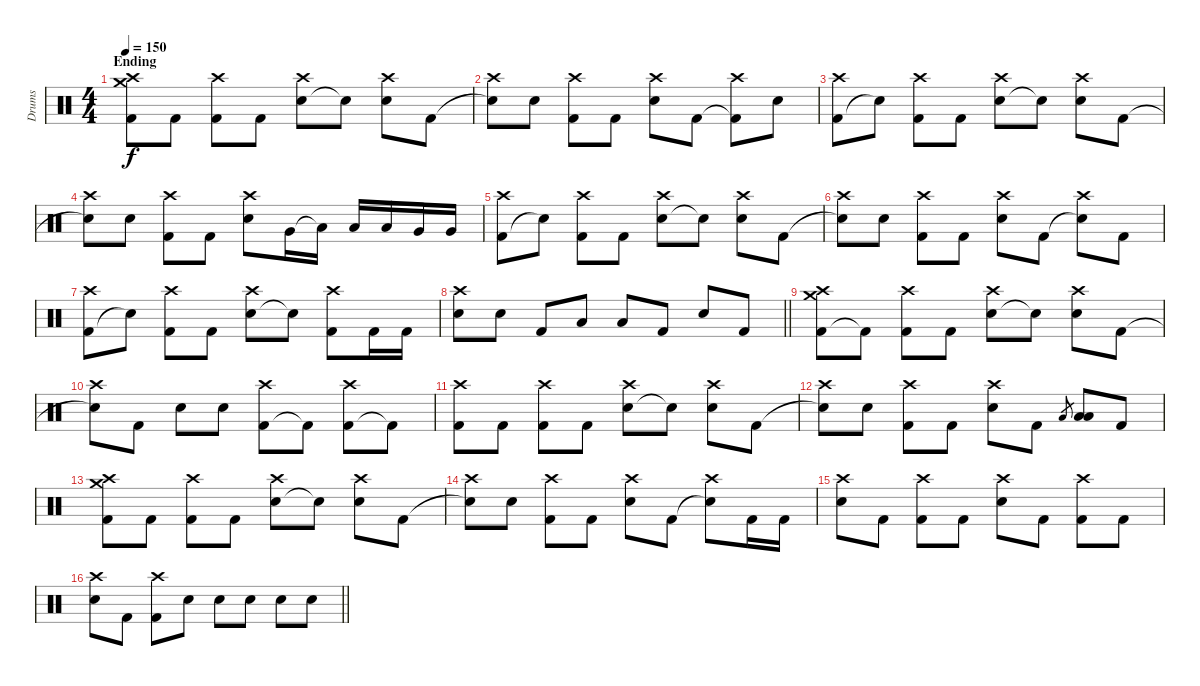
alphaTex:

\track ("Drums" "Drums") {instrument percussion}
\staff {score}
\articulation defaults
\ts (4 4)
\section ("" "Ending")
\tempo 150
\clef neutral
\ks c
("Kick (hit) 2" "Crash medium (hit)" "Crash high (hit)").8{dy f} "Kick (hit) 2".8 ("Kick (hit) 2" "Crash high (hit)").8 "Kick (hit) 2".8 ("Electric Snare (hit)" "Crash high (hit)").8 "Snare (hit)"{t}.8 ("Electric Snare (hit)" "Crash high (hit)").8 "Kick (hit) 2".8 |
("Snare (hit)"{t} "Crash high (hit)").8 "Electric Snare (hit)".8 ("Kick (hit) 2" "Crash high (hit)").8 "Kick (hit) 2".8 ("Electric Snare (hit)" "Crash high (hit)").8 "Kick (hit) 2".8 ("Kick (hit) 2"{t} "Crash high (hit)").8 "Electric Snare (hit)".8 |
("Kick (hit) 2" "Crash high (hit)").8 "Snare (hit)"{t}.8 ("Kick (hit) 2" "Crash high (hit)").8 "Kick (hit) 2".8 ("Electric Snare (hit)" "Crash high (hit)").8 "Snare (hit)"{t}.8 ("Electric Snare (hit)" "Crash high (hit)").8 "Kick (hit) 2".8 |
("Snare (hit)"{t} "Crash high (hit)").8 "Electric Snare (hit)".8 ("Kick (hit) 2" "Crash high (hit)").8 "Kick (hit) 2".8 ("Electric Snare (hit)" "Crash high (hit)").8 "Very Low Tom (hit)".16 "Low Tom (hit)"{t}.16 "Low Tom (hit)".16 "Low Tom (hit)".16 "Very Low Tom (hit)".16 "Very Low Tom (hit)".16 |
("Kick (hit) 2" "Crash high (hit)").8 "Snare (hit)"{t}.8 ("Kick (hit) 2" "Crash high (hit)").8 "Kick (hit) 2".8 ("Electric Snare (hit)" "Crash high (hit)").8 "Snare (hit)"{t}.8 ("Electric Snare (hit)" "Crash high (hit)").8 "Kick (hit) 2".8 |
("Snare (hit)"{t} "Crash high (hit)").8 "Electric Snare (hit)".8 ("Kick (hit) 2" "Crash high (hit)").8 "Kick (hit) 2".8 ("Electric Snare (hit)" "Crash high (hit)").8 "Kick (hit) 2".8 ("Snare (hit)"{t} "Crash high (hit)").8 "Kick (hit) 2".8 |
("Kick (hit) 2" "Crash high (hit)").8 "Snare (hit)"{t}.8 ("Kick (hit) 2" "Crash high (hit)").8 "Kick (hit) 2".8 ("Electric Snare (hit)" "Crash high (hit)").8 "Snare (hit)"{t}.8 ("Kick (hit) 2" "Crash high (hit)").8 "Kick (hit) 2".16 "Kick (hit) 2".16 |
\barLineRight lightlight
("Electric Snare (hit)" "Crash high (hit)").8 "Electric Snare (hit)".8 "Kick (hit) 2".8 "Low Tom (hit)".8 "Low Tom (hit)".8 "Kick (hit) 2".8 "Electric Snare (hit)".8 "Kick (hit) 2".8 |
("Kick (hit) 2" "Crash medium (hit)" "Crash high (hit)").8 "Kick (hit) 2"{t}.8 ("Kick (hit) 2" "Crash high (hit)").8 "Kick (hit) 2".8 ("Electric Snare (hit)" "Crash high (hit)").8 "Snare (hit)"{t}.8 ("Electric Snare (hit)" "Crash high (hit)").8 "Kick (hit) 2".8 |
("Snare (hit)"{t} "Crash high (hit)").8 "Kick (hit) 2".8 "Electric Snare (hit)".8 "Electric Snare (hit)".8 ("Kick (hit) 2" "Crash high (hit)").8 "Kick (hit) 2"{t}.8 ("Kick (hit) 2" "Crash high (hit)").8 "Kick (hit) 2"{t}.8 |
("Kick (hit) 2" "Crash high (hit)").8 "Kick (hit) 2".8 ("Kick (hit) 2" "Crash high (hit)").8 "Kick (hit) 2".8 ("Electric Snare (hit)" "Crash high (hit)").8 "Snare (hit)"{t}.8 ("Electric Snare (hit)" "Crash high (hit)").8 "Kick (hit) 2".8 |
("Snare (hit)"{t} "Crash high (hit)").8 "Electric Snare (hit)".8 ("Kick (hit) 2" "Crash high (hit)").8 "Kick (hit) 2".8 ("Electric Snare (hit)" "Crash high (hit)").8 "Kick (hit) 2".8 "Low Tom (hit)".8{gr} ("Low Tom (hit)" "Low Floor Tom (hit)").8 "Kick (hit) 2".8 |
("Kick (hit) 2" "Crash medium (hit)" "Crash high (hit)").8 "Kick (hit) 2".8 ("Kick (hit) 2" "Crash high (hit)").8 "Kick (hit) 2".8 ("Electric Snare (hit)" "Crash high (hit)").8 "Snare (hit)"{t}.8 ("Electric Snare (hit)" "Crash high (hit)").8 "Kick (hit) 2".8 |
("Snare (hit)"{t} "Crash high (hit)").8 "Electric Snare (hit)".8 ("Kick (hit) 2" "Crash high (hit)").8 "Kick (hit) 2".8 ("Electric Snare (hit)" "Crash high (hit)").8 "Kick (hit) 2".8 ("Snare (hit)"{t} "Crash high (hit)").8 "Kick (hit) 2".16 "Kick (hit) 2".16 |
("Electric Snare (hit)" "Crash high (hit)").8 "Kick (hit) 2".8 ("Kick (hit) 2" "Crash high (hit)").8 "Kick (hit) 2".8 ("Electric Snare (hit)" "Crash high (hit)").8 "Kick (hit) 2".8 ("Kick (hit) 2" "Crash high (hit)").8 "Kick (hit) 2".8 |
\barLineRight lightlight
("Electric Snare (hit)" "Crash high (hit)").8 "Kick (hit) 2".8 ("Kick (hit) 2" "Crash high (hit)").8 "Electric Snare (hit)".8 "Electric Snare (hit)".8 "Electric Snare (hit)".8 "Electric Snare (hit)".8 "Electric Snare (hit)".8
